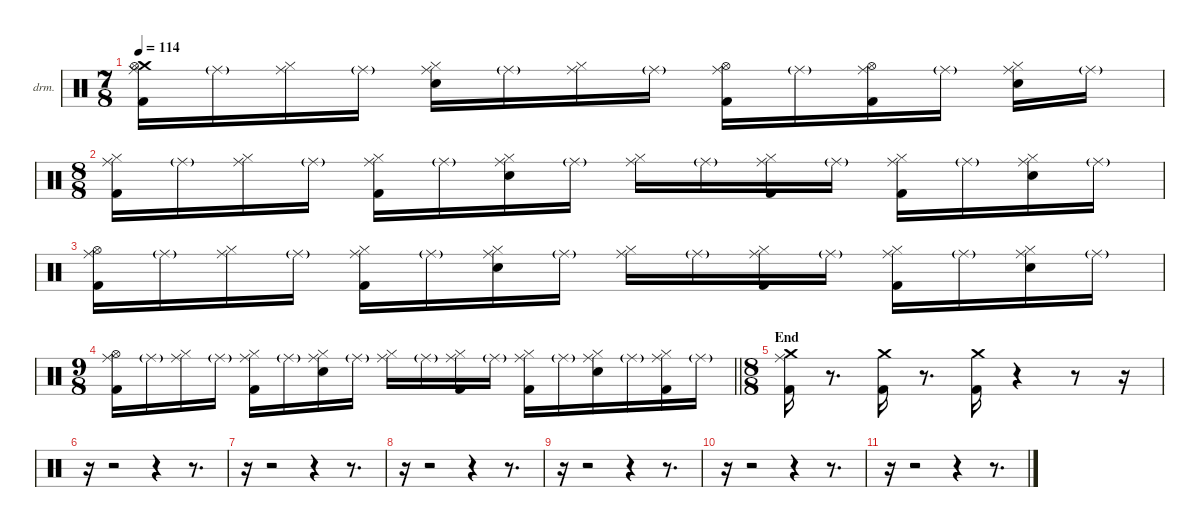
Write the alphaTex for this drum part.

\defaultSystemsLayout 4
\hideDynamics
\bracketExtendMode nobrackets
\firstSystemTrackNameOrientation horizontal
\otherSystemsTrackNameOrientation horizontal
\track ("Drums" "drm.") {instrument percussion}
\staff {score}
\articulation defaults
\ts (7 8)
\beaming (8 2 2 2 2)
\tempo 114
\clef neutral
\ks c
("Crash medium (hit)" "Ride (middle)" "Hi-Hat (open)" "Kick (hit) 2").16{dy f} "Ride (middle)"{g}.16{dy mf} ("Ride (middle)" "Hi-Hat (closed)").16{dy f} "Ride (middle)"{g}.16{dy mf} ("Ride (middle)" "Hi-Hat (closed)" "Snare (hit) 2").16{dy f} "Ride (middle)"{g}.16{dy mf} ("Ride (middle)" "Hi-Hat (closed)").16{dy f} "Ride (middle)"{g}.16{dy mf} ("Ride (middle)" "Hi-Hat (open)" "Kick (hit) 2").16{dy f} "Ride (middle)"{g}.16{dy mf} ("Ride (middle)" "Hi-Hat (open)" "Kick (hit) 2").16{dy f} "Ride (middle)"{g}.16{dy mf} ("Ride (middle)" "Hi-Hat (closed)" "Snare (hit) 2").16{dy f} "Ride (middle)"{g}.16{dy mf} |
\ts (8 8)
\beaming (8 2 2 2 2)
("Ride (middle)" "Hi-Hat (closed)" "Kick (hit) 2").16{dy f} "Ride (middle)"{g}.16{dy mf} ("Ride (middle)" "Hi-Hat (closed)").16{dy f} "Ride (middle)"{g}.16{dy mf} ("Ride (middle)" "Hi-Hat (closed)" "Kick (hit) 2").16{dy f} "Ride (middle)"{g}.16{dy mf} ("Ride (middle)" "Hi-Hat (closed)" "Snare (hit) 2").16{dy f} "Ride (middle)"{g}.16{dy mf} ("Ride (middle)" "Hi-Hat (closed)").16{dy f} "Ride (middle)"{g}.16{dy mf} ("Ride (middle)" "Hi-Hat (closed)" "Kick (hit) 2").16{dy f} "Ride (middle)"{g}.16{dy mf} ("Ride (middle)" "Hi-Hat (closed)" "Kick (hit) 2").16{dy f} "Ride (middle)"{g}.16{dy mf} ("Ride (middle)" "Hi-Hat (closed)" "Snare (hit) 2").16{dy f} "Ride (middle)"{g}.16{dy mf} |
("Ride (middle)" "Hi-Hat (open)" "Kick (hit) 2").16{dy f} "Ride (middle)"{g}.16{dy mf} ("Ride (middle)" "Hi-Hat (closed)").16{dy f} "Ride (middle)"{g}.16{dy mf} ("Ride (middle)" "Hi-Hat (closed)" "Kick (hit) 2").16{dy f} "Ride (middle)"{g}.16{dy mf} ("Ride (middle)" "Hi-Hat (closed)" "Snare (hit) 2").16{dy f} "Ride (middle)"{g}.16{dy mf} ("Ride (middle)" "Hi-Hat (closed)").16{dy f} "Ride (middle)"{g}.16{dy mf} ("Ride (middle)" "Hi-Hat (closed)" "Kick (hit) 2").16{dy f} "Ride (middle)"{g}.16{dy mf} ("Ride (middle)" "Hi-Hat (closed)" "Kick (hit) 2").16{dy f} "Ride (middle)"{g}.16{dy mf} ("Ride (middle)" "Hi-Hat (closed)" "Snare (hit) 2").16{dy f} "Ride (middle)"{g}.16{dy mf} |
\ts (9 8)
\beaming (8 2 2 2 3)
\barLineRight lightlight
("Ride (middle)" "Hi-Hat (open)" "Kick (hit) 2").16{dy f} "Ride (middle)"{g}.16{dy mf} ("Ride (middle)" "Hi-Hat (closed)").16{dy f} "Ride (middle)"{g}.16{dy mf} ("Ride (middle)" "Hi-Hat (closed)" "Kick (hit) 2").16{dy f} "Ride (middle)"{g}.16{dy mf} ("Ride (middle)" "Hi-Hat (closed)" "Snare (hit) 2").16{dy f} "Ride (middle)"{g}.16{dy mf} ("Ride (middle)" "Hi-Hat (closed)").16{dy f} "Ride (middle)"{g}.16{dy mf} ("Ride (middle)" "Hi-Hat (closed)" "Kick (hit) 2").16{dy f} "Ride (middle)"{g}.16{dy mf} ("Ride (middle)" "Hi-Hat (closed)" "Kick (hit) 2").16{dy f} "Ride (middle)"{g}.16{dy mf} ("Ride (middle)" "Hi-Hat (closed)" "Snare (hit) 2").16{dy f} "Ride (middle)"{g}.16{dy mf} ("Ride (middle)" "Hi-Hat (closed)" "Kick (hit) 2").16{dy f} "Ride (middle)"{g}.16{dy mf} |
\ts (8 8)
\beaming (8 2 2 2 2)
\section ("" "End")
("Crash medium (hit)" "Ride (middle)" "Kick (hit) 2").16{dy f} r.8{d} ("Crash medium (hit)" "Kick (hit) 2").16 r.8{d} ("Crash medium (hit)" "Kick (hit) 2").16 r.4 r.8 r.16 |
r.16 r.2 r.4 r.8{d} |
r.16 r.2 r.4 r.8{d} |
r.16 r.2 r.4 r.8{d} |
r.16 r.2 r.4 r.8{d} |
r.16 r.2 r.4 r.8{d} |
r.16 r.2 r.4 r.8{d}
